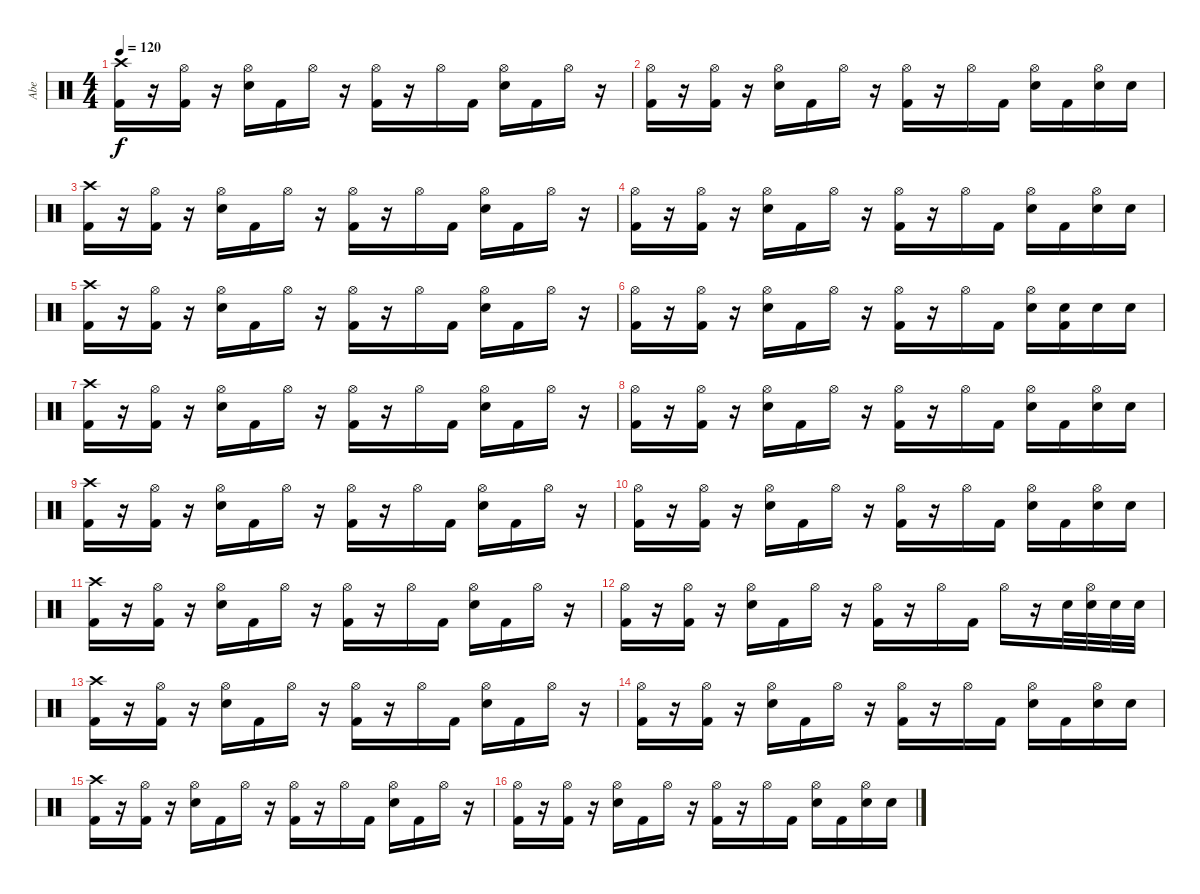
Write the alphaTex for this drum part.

\track ("Abe" "Abe") {instrument percussion}
\staff {score}
\articulation defaults
\ts (4 4)
\tempo 120
\clef neutral
\ks c
("Crash high (hit)" "Kick (hit) 2").16{dy f} r.16 ("Hi-Hat (open)" "Kick (hit) 2").16 r.16 ("Hi-Hat (open)" "Electric Snare (hit)").16 "Kick (hit) 2".16 "Hi-Hat (open)".16 r.16 ("Hi-Hat (open)" "Kick (hit) 2").16 r.16 "Hi-Hat (open)".16 "Kick (hit) 2".16 ("Hi-Hat (open)" "Electric Snare (hit)").16 "Kick (hit) 2".16 "Hi-Hat (open)".16 r.16 |
("Hi-Hat (open)" "Kick (hit) 2").16 r.16 ("Hi-Hat (open)" "Kick (hit) 2").16 r.16 ("Hi-Hat (open)" "Electric Snare (hit)").16 "Kick (hit) 2".16 "Hi-Hat (open)".16 r.16 ("Hi-Hat (open)" "Kick (hit) 2").16 r.16 "Hi-Hat (open)".16 "Kick (hit) 2".16 ("Hi-Hat (open)" "Electric Snare (hit)").16 "Kick (hit) 2".16 ("Hi-Hat (open)" "Electric Snare (hit)").16 "Electric Snare (hit)".16 |
("Crash high (hit)" "Kick (hit) 2").16 r.16 ("Hi-Hat (open)" "Kick (hit) 2").16 r.16 ("Hi-Hat (open)" "Electric Snare (hit)").16 "Kick (hit) 2".16 "Hi-Hat (open)".16 r.16 ("Hi-Hat (open)" "Kick (hit) 2").16 r.16 "Hi-Hat (open)".16 "Kick (hit) 2".16 ("Hi-Hat (open)" "Electric Snare (hit)").16 "Kick (hit) 2".16 "Hi-Hat (open)".16 r.16 |
("Hi-Hat (open)" "Kick (hit) 2").16 r.16 ("Hi-Hat (open)" "Kick (hit) 2").16 r.16 ("Hi-Hat (open)" "Electric Snare (hit)").16 "Kick (hit) 2".16 "Hi-Hat (open)".16 r.16 ("Hi-Hat (open)" "Kick (hit) 2").16 r.16 "Hi-Hat (open)".16 "Kick (hit) 2".16 ("Hi-Hat (open)" "Electric Snare (hit)").16 "Kick (hit) 2".16 ("Hi-Hat (open)" "Electric Snare (hit)").16 "Electric Snare (hit)".16 |
("Crash high (hit)" "Kick (hit) 2").16 r.16 ("Hi-Hat (open)" "Kick (hit) 2").16 r.16 ("Hi-Hat (open)" "Electric Snare (hit)").16 "Kick (hit) 2".16 "Hi-Hat (open)".16 r.16 ("Hi-Hat (open)" "Kick (hit) 2").16 r.16 "Hi-Hat (open)".16 "Kick (hit) 2".16 ("Hi-Hat (open)" "Electric Snare (hit)").16 "Kick (hit) 2".16 "Hi-Hat (open)".16 r.16 |
("Hi-Hat (open)" "Kick (hit) 2").16 r.16 ("Hi-Hat (open)" "Kick (hit) 2").16 r.16 ("Hi-Hat (open)" "Electric Snare (hit)").16 "Kick (hit) 2".16 "Hi-Hat (open)".16 r.16 ("Hi-Hat (open)" "Kick (hit) 2").16 r.16 "Hi-Hat (open)".16 "Kick (hit) 2".16 ("Hi-Hat (open)" "Electric Snare (hit)").16 ("Electric Snare (hit)" "Kick (hit) 2").16 "Electric Snare (hit)".16 "Electric Snare (hit)".16 |
("Crash high (hit)" "Kick (hit) 2").16 r.16 ("Hi-Hat (open)" "Kick (hit) 2").16 r.16 ("Hi-Hat (open)" "Electric Snare (hit)").16 "Kick (hit) 2".16 "Hi-Hat (open)".16 r.16 ("Hi-Hat (open)" "Kick (hit) 2").16 r.16 "Hi-Hat (open)".16 "Kick (hit) 2".16 ("Hi-Hat (open)" "Electric Snare (hit)").16 "Kick (hit) 2".16 "Hi-Hat (open)".16 r.16 |
("Hi-Hat (open)" "Kick (hit) 2").16 r.16 ("Hi-Hat (open)" "Kick (hit) 2").16 r.16 ("Hi-Hat (open)" "Electric Snare (hit)").16 "Kick (hit) 2".16 "Hi-Hat (open)".16 r.16 ("Hi-Hat (open)" "Kick (hit) 2").16 r.16 "Hi-Hat (open)".16 "Kick (hit) 2".16 ("Hi-Hat (open)" "Electric Snare (hit)").16 "Kick (hit) 2".16 ("Hi-Hat (open)" "Electric Snare (hit)").16 "Electric Snare (hit)".16 |
("Crash high (hit)" "Kick (hit) 2").16 r.16 ("Hi-Hat (open)" "Kick (hit) 2").16 r.16 ("Hi-Hat (open)" "Electric Snare (hit)").16 "Kick (hit) 2".16 "Hi-Hat (open)".16 r.16 ("Hi-Hat (open)" "Kick (hit) 2").16 r.16 "Hi-Hat (open)".16 "Kick (hit) 2".16 ("Hi-Hat (open)" "Electric Snare (hit)").16 "Kick (hit) 2".16 "Hi-Hat (open)".16 r.16 |
("Hi-Hat (open)" "Kick (hit) 2").16 r.16 ("Hi-Hat (open)" "Kick (hit) 2").16 r.16 ("Hi-Hat (open)" "Electric Snare (hit)").16 "Kick (hit) 2".16 "Hi-Hat (open)".16 r.16 ("Hi-Hat (open)" "Kick (hit) 2").16 r.16 "Hi-Hat (open)".16 "Kick (hit) 2".16 ("Hi-Hat (open)" "Electric Snare (hit)").16 "Kick (hit) 2".16 ("Hi-Hat (open)" "Electric Snare (hit)").16 "Electric Snare (hit)".16 |
("Crash high (hit)" "Kick (hit) 2").16 r.16 ("Hi-Hat (open)" "Kick (hit) 2").16 r.16 ("Hi-Hat (open)" "Electric Snare (hit)").16 "Kick (hit) 2".16 "Hi-Hat (open)".16 r.16 ("Hi-Hat (open)" "Kick (hit) 2").16 r.16 "Hi-Hat (open)".16 "Kick (hit) 2".16 ("Hi-Hat (open)" "Electric Snare (hit)").16 "Kick (hit) 2".16 "Hi-Hat (open)".16 r.16 |
("Hi-Hat (open)" "Kick (hit) 2").16 r.16 ("Hi-Hat (open)" "Kick (hit) 2").16 r.16 ("Hi-Hat (open)" "Electric Snare (hit)").16 "Kick (hit) 2".16 "Hi-Hat (open)".16 r.16 ("Hi-Hat (open)" "Kick (hit) 2").16 r.16 "Hi-Hat (open)".16 "Kick (hit) 2".16 "Hi-Hat (open)".16 r.16 "Electric Snare (hit)".32 ("Hi-Hat (open)" "Electric Snare (hit)").32 "Electric Snare (hit)".32 "Electric Snare (hit)".32 |
("Crash high (hit)" "Kick (hit) 2").16 r.16 ("Hi-Hat (open)" "Kick (hit) 2").16 r.16 ("Hi-Hat (open)" "Electric Snare (hit)").16 "Kick (hit) 2".16 "Hi-Hat (open)".16 r.16 ("Hi-Hat (open)" "Kick (hit) 2").16 r.16 "Hi-Hat (open)".16 "Kick (hit) 2".16 ("Hi-Hat (open)" "Electric Snare (hit)").16 "Kick (hit) 2".16 "Hi-Hat (open)".16 r.16 |
("Hi-Hat (open)" "Kick (hit) 2").16 r.16 ("Hi-Hat (open)" "Kick (hit) 2").16 r.16 ("Hi-Hat (open)" "Electric Snare (hit)").16 "Kick (hit) 2".16 "Hi-Hat (open)".16 r.16 ("Hi-Hat (open)" "Kick (hit) 2").16 r.16 "Hi-Hat (open)".16 "Kick (hit) 2".16 ("Hi-Hat (open)" "Electric Snare (hit)").16 "Kick (hit) 2".16 ("Hi-Hat (open)" "Electric Snare (hit)").16 "Electric Snare (hit)".16 |
("Crash high (hit)" "Kick (hit) 2").16 r.16 ("Hi-Hat (open)" "Kick (hit) 2").16 r.16 ("Hi-Hat (open)" "Electric Snare (hit)").16 "Kick (hit) 2".16 "Hi-Hat (open)".16 r.16 ("Hi-Hat (open)" "Kick (hit) 2").16 r.16 "Hi-Hat (open)".16 "Kick (hit) 2".16 ("Hi-Hat (open)" "Electric Snare (hit)").16 "Kick (hit) 2".16 "Hi-Hat (open)".16 r.16 |
("Hi-Hat (open)" "Kick (hit) 2").16 r.16 ("Hi-Hat (open)" "Kick (hit) 2").16 r.16 ("Hi-Hat (open)" "Electric Snare (hit)").16 "Kick (hit) 2".16 "Hi-Hat (open)".16 r.16 ("Hi-Hat (open)" "Kick (hit) 2").16 r.16 "Hi-Hat (open)".16 "Kick (hit) 2".16 ("Hi-Hat (open)" "Electric Snare (hit)").16 "Kick (hit) 2".16 ("Hi-Hat (open)" "Electric Snare (hit)").16 "Electric Snare (hit)".16
